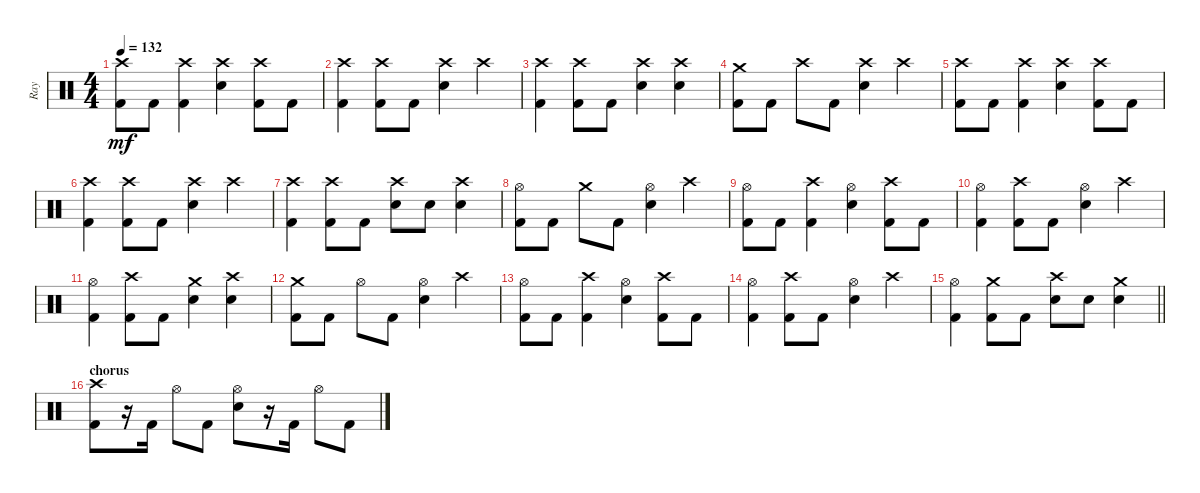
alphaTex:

\track ("Ray" "Ray") {instrument percussion}
\staff {score}
\articulation defaults
\ts (4 4)
\tempo 132
\clef neutral
\ks c
("Crash high (hit)" "Kick (hit) 2").8{dy mf} "Kick (hit) 2".8 ("Crash high (hit)" "Kick (hit) 2").4 ("Crash high (hit)" "Snare (hit) 2").4 ("Crash high (hit)" "Kick (hit) 2").8 "Kick (hit) 2".8 |
("Crash high (hit)" "Kick (hit) 2").4 ("Crash high (hit)" "Kick (hit) 2").8 "Kick (hit) 2".8 ("Crash high (hit)" "Snare (hit) 2").4 "Crash high (hit)".4 |
("Crash high (hit)" "Kick (hit) 2").4 ("Crash high (hit)" "Kick (hit) 2").8 "Kick (hit) 2".8 ("Crash high (hit)" "Snare (hit) 2").4 ("Crash high (hit)" "Snare (hit) 2").4 |
("Crash medium (hit)" "Kick (hit) 2").8 "Kick (hit) 2".8 "Crash high (hit)".8 "Kick (hit) 2".8 ("Crash high (hit)" "Snare (hit) 2").4 "Crash high (hit)".4 |
("Crash high (hit)" "Kick (hit) 2").8 "Kick (hit) 2".8 ("Crash high (hit)" "Kick (hit) 2").4 ("Crash high (hit)" "Snare (hit) 2").4 ("Crash high (hit)" "Kick (hit) 2").8 "Kick (hit) 2".8 |
("Crash high (hit)" "Kick (hit) 2").4 ("Crash high (hit)" "Kick (hit) 2").8 "Kick (hit) 2".8 ("Crash high (hit)" "Snare (hit) 2").4 "Crash high (hit)".4 |
("Crash high (hit)" "Kick (hit) 2").4 ("Crash high (hit)" "Kick (hit) 2").8 "Kick (hit) 2".8 ("Crash high (hit)" "Snare (hit) 2").8 "Snare (hit) 2".8 ("Crash high (hit)" "Snare (hit) 2").4 |
("Hi-Hat (open)" "Kick (hit) 2").8 "Kick (hit) 2".8 "Crash medium (hit)".8 "Kick (hit) 2".8 ("Hi-Hat (open)" "Snare (hit) 2").4 "Crash high (hit)".4 |
("Hi-Hat (open)" "Kick (hit) 2").8 "Kick (hit) 2".8 ("Crash high (hit)" "Kick (hit) 2").4 ("Hi-Hat (open)" "Snare (hit) 2").4 ("Crash high (hit)" "Kick (hit) 2").8 "Kick (hit) 2".8 |
("Hi-Hat (open)" "Kick (hit) 2").4 ("Crash high (hit)" "Kick (hit) 2").8 "Kick (hit) 2".8 ("Hi-Hat (open)" "Snare (hit) 2").4 "Crash high (hit)".4 |
("Hi-Hat (open)" "Kick (hit) 2").4 ("Crash high (hit)" "Kick (hit) 2").8 "Kick (hit) 2".8 ("Crash medium (hit)" "Snare (hit) 2").4 ("Crash high (hit)" "Snare (hit) 2").4 |
("Crash medium (hit)" "Kick (hit) 2").8 "Kick (hit) 2".8 "Hi-Hat (open)".8 "Kick (hit) 2".8 ("Hi-Hat (open)" "Snare (hit) 2").4 "Crash high (hit)".4 |
("Hi-Hat (open)" "Kick (hit) 2").8 "Kick (hit) 2".8 ("Crash high (hit)" "Kick (hit) 2").4 ("Hi-Hat (open)" "Snare (hit) 2").4 ("Crash high (hit)" "Kick (hit) 2").8 "Kick (hit) 2".8 |
("Hi-Hat (open)" "Kick (hit) 2").4 ("Crash high (hit)" "Kick (hit) 2").8 "Kick (hit) 2".8 ("Hi-Hat (open)" "Snare (hit) 2").4 "Crash high (hit)".4 |
\barLineRight lightlight
("Hi-Hat (open)" "Kick (hit) 2").4 ("Crash medium (hit)" "Kick (hit) 2").8 "Kick (hit) 2".8 ("Crash high (hit)" "Snare (hit) 2").8 "Snare (hit) 2".8 ("Crash medium (hit)" "Snare (hit) 2").4 |
\section ("" "chorus")
("Crash high (hit)" "Kick (hit) 2").8 r.16 "Kick (hit) 2".16 "Hi-Hat (open)".8 "Kick (hit) 2".8 ("Hi-Hat (open)" "Snare (hit) 2").8 r.16 "Kick (hit) 2".16 "Hi-Hat (open)".8 "Kick (hit) 2".8
